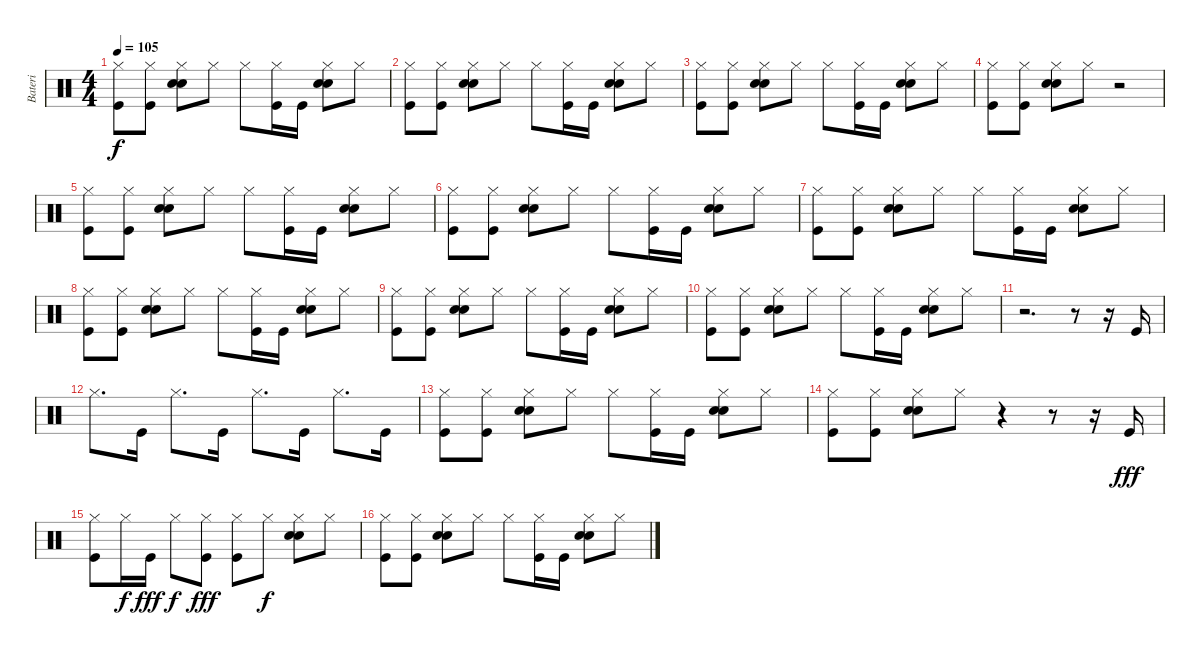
\track ("Bateri" "Bateri") {instrument percussion}
\staff {score}
\articulation defaults
\ts (4 4)
\tempo 105
\clef neutral
\ks c
("Hi-Hat (closed)" "Kick (hit)").8{dy f} ("Hi-Hat (closed)" "Kick (hit)").8 ("Hi-Hat (closed)" "Hand Clap (hit)" "Snare (hit) 2").8 "Hi-Hat (closed)".8 "Hi-Hat (closed)".8 ("Hi-Hat (closed)" "Kick (hit)").16 "Kick (hit)".16 ("Hi-Hat (closed)" "Hand Clap (hit)" "Snare (hit) 2").8 "Hi-Hat (closed)".8 |
("Hi-Hat (closed)" "Kick (hit)").8 ("Hi-Hat (closed)" "Kick (hit)").8 ("Hi-Hat (closed)" "Hand Clap (hit)" "Snare (hit) 2").8 "Hi-Hat (closed)".8 "Hi-Hat (closed)".8 ("Hi-Hat (closed)" "Kick (hit)").16 "Kick (hit)".16 ("Hi-Hat (closed)" "Hand Clap (hit)" "Snare (hit) 2").8 "Hi-Hat (closed)".8 |
("Hi-Hat (closed)" "Kick (hit)").8 ("Hi-Hat (closed)" "Kick (hit)").8 ("Hi-Hat (closed)" "Hand Clap (hit)" "Snare (hit) 2").8 "Hi-Hat (closed)".8 "Hi-Hat (closed)".8 ("Hi-Hat (closed)" "Kick (hit)").16 "Kick (hit)".16 ("Hi-Hat (closed)" "Hand Clap (hit)" "Snare (hit) 2").8 "Hi-Hat (closed)".8 |
("Hi-Hat (closed)" "Kick (hit)").8 ("Hi-Hat (closed)" "Kick (hit)").8 ("Hi-Hat (closed)" "Hand Clap (hit)" "Snare (hit) 2").8 "Hi-Hat (closed)".8 r.2 |
("Hi-Hat (closed)" "Kick (hit)").8 ("Hi-Hat (closed)" "Kick (hit)").8 ("Hi-Hat (closed)" "Hand Clap (hit)" "Snare (hit) 2").8 "Hi-Hat (closed)".8 "Hi-Hat (closed)".8 ("Hi-Hat (closed)" "Kick (hit)").16 "Kick (hit)".16 ("Hi-Hat (closed)" "Hand Clap (hit)" "Snare (hit) 2").8 "Hi-Hat (closed)".8 |
("Hi-Hat (closed)" "Kick (hit)").8 ("Hi-Hat (closed)" "Kick (hit)").8 ("Hi-Hat (closed)" "Hand Clap (hit)" "Snare (hit) 2").8 "Hi-Hat (closed)".8 "Hi-Hat (closed)".8 ("Hi-Hat (closed)" "Kick (hit)").16 "Kick (hit)".16 ("Hi-Hat (closed)" "Hand Clap (hit)" "Snare (hit) 2").8 "Hi-Hat (closed)".8 |
("Hi-Hat (closed)" "Kick (hit)").8 ("Hi-Hat (closed)" "Kick (hit)").8 ("Hi-Hat (closed)" "Hand Clap (hit)" "Snare (hit) 2").8 "Hi-Hat (closed)".8 "Hi-Hat (closed)".8 ("Hi-Hat (closed)" "Kick (hit)").16 "Kick (hit)".16 ("Hi-Hat (closed)" "Hand Clap (hit)" "Snare (hit) 2").8 "Hi-Hat (closed)".8 |
("Hi-Hat (closed)" "Kick (hit)").8 ("Hi-Hat (closed)" "Kick (hit)").8 ("Hi-Hat (closed)" "Hand Clap (hit)" "Snare (hit) 2").8 "Hi-Hat (closed)".8 "Hi-Hat (closed)".8 ("Hi-Hat (closed)" "Kick (hit)").16 "Kick (hit)".16 ("Hi-Hat (closed)" "Hand Clap (hit)" "Snare (hit) 2").8 "Hi-Hat (closed)".8 |
("Hi-Hat (closed)" "Kick (hit)").8 ("Hi-Hat (closed)" "Kick (hit)").8 ("Hi-Hat (closed)" "Hand Clap (hit)" "Snare (hit) 2").8 "Hi-Hat (closed)".8 "Hi-Hat (closed)".8 ("Hi-Hat (closed)" "Kick (hit)").16 "Kick (hit)".16 ("Hi-Hat (closed)" "Hand Clap (hit)" "Snare (hit) 2").8 "Hi-Hat (closed)".8 |
("Hi-Hat (closed)" "Kick (hit)").8 ("Hi-Hat (closed)" "Kick (hit)").8 ("Hi-Hat (closed)" "Hand Clap (hit)" "Snare (hit) 2").8 "Hi-Hat (closed)".8 "Hi-Hat (closed)".8 ("Hi-Hat (closed)" "Kick (hit)").16 "Kick (hit)".16 ("Hi-Hat (closed)" "Hand Clap (hit)" "Snare (hit) 2").8 "Hi-Hat (closed)".8 |
r.2{d} r.8 r.16 "Kick (hit)".16 |
"Hi-Hat (closed)".8{d} "Kick (hit)".16 "Hi-Hat (closed)".8{d} "Kick (hit)".16 "Hi-Hat (closed)".8{d} "Kick (hit)".16 "Hi-Hat (closed)".8{d} "Kick (hit)".16 |
("Hi-Hat (closed)" "Kick (hit)").8 ("Hi-Hat (closed)" "Kick (hit)").8 ("Hi-Hat (closed)" "Hand Clap (hit)" "Snare (hit) 2").8 "Hi-Hat (closed)".8 "Hi-Hat (closed)".8 ("Hi-Hat (closed)" "Kick (hit)").16 "Kick (hit)".16 ("Hi-Hat (closed)" "Hand Clap (hit)" "Snare (hit) 2").8 "Hi-Hat (closed)".8 |
("Hi-Hat (closed)" "Kick (hit)").8 ("Hi-Hat (closed)" "Kick (hit)").8 ("Hi-Hat (closed)" "Hand Clap (hit)" "Snare (hit) 2").8 "Hi-Hat (closed)".8 r.4 r.8 r.16 "Kick (hit)".16{dy fff} |
("Hi-Hat (closed)" "Kick (hit)").8 "Hi-Hat (closed)".16{dy f} "Kick (hit)".16{dy fff} "Hi-Hat (closed)".8{dy f} ("Hi-Hat (closed)" "Kick (hit)").8{dy fff} ("Hi-Hat (closed)" "Kick (hit)").8 "Hi-Hat (closed)".8{dy f} ("Hi-Hat (closed)" "Hand Clap (hit)" "Snare (hit) 2").8 "Hi-Hat (closed)".8 |
("Hi-Hat (closed)" "Kick (hit)").8 ("Hi-Hat (closed)" "Kick (hit)").8 ("Hi-Hat (closed)" "Hand Clap (hit)" "Snare (hit) 2").8 "Hi-Hat (closed)".8 "Hi-Hat (closed)".8 ("Hi-Hat (closed)" "Kick (hit)").16 "Kick (hit)".16 ("Hi-Hat (closed)" "Hand Clap (hit)" "Snare (hit) 2").8 "Hi-Hat (closed)".8
